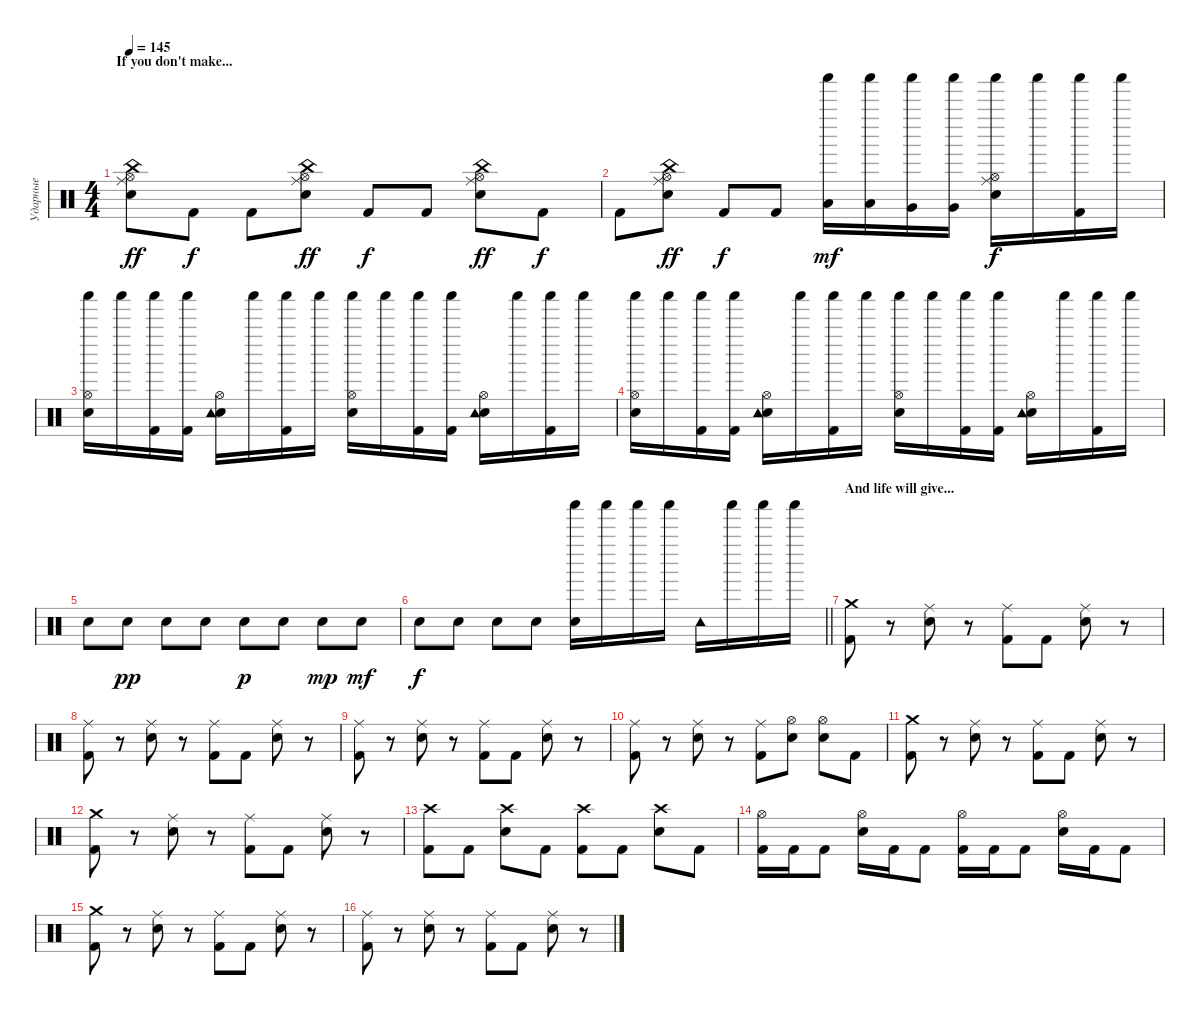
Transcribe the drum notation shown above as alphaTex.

\track ("Ударные" "Ударные") {instrument percussion bank 127}
\staff
\articulation defaults
\ts (4 4)
\section ("" "If you don't make...")
\tempo 145
\clef neutral
\ks c
("Hi-Hat (open)" "Ride (middle)" "China (hit)" "Snare (hit) 2").8{dy ff} "Kick (hit) 2".8{dy f} "Kick (hit) 2".8 ("Hi-Hat (open)" "Ride (middle)" "China (hit)" "Snare (hit) 2").8{dy ff} "Kick (hit) 2".8{dy f} "Kick (hit) 2".8 ("Hi-Hat (open)" "Ride (middle)" "China (hit)" "Snare (hit) 2").8{dy ff} "Kick (hit) 2".8{dy f} |
"Kick (hit) 2".8 ("Ride (middle)" "Hi-Hat (open)" "China (hit)" "Snare (hit) 2").8{dy ff} "Kick (hit) 2".8{dy f} "Kick (hit) 2".8 ("Low Tom (hit)" "Shaker (hit)").16{dy mf} ("Low Tom (hit)" "Shaker (hit)").16 ("Very Low Tom (hit)" "Shaker (hit)").16 ("Very Low Tom (hit)" "Shaker (hit)").16 ("Hi-Hat (open)" "Snare (hit) 2" "Ride (middle)" "Shaker (hit)").16{dy f} "Shaker (hit)".16 ("Kick (hit) 2" "Shaker (hit)").16 "Shaker (hit)".16 |
("Hi-Hat (open)" "Snare (hit) 2" "Shaker (hit)").16 "Shaker (hit)".16 ("Kick (hit) 2" "Shaker (hit)").16 ("Kick (hit) 2" "Shaker (hit)").16 ("Hi-Hat (open)" "Snare (hit) 2" "Tambourine (hit)").16 "Shaker (hit)".16 ("Kick (hit) 2" "Shaker (hit)").16 "Shaker (hit)".16 ("Hi-Hat (open)" "Snare (hit) 2" "Shaker (hit)").16 "Shaker (hit)".16 ("Kick (hit) 2" "Shaker (hit)").16 ("Kick (hit) 2" "Shaker (hit)").16 ("Hi-Hat (open)" "Snare (hit) 2" "Tambourine (hit)").16 "Shaker (hit)".16 ("Kick (hit) 2" "Shaker (hit)").16 "Shaker (hit)".16 |
("Hi-Hat (open)" "Snare (hit) 2" "Shaker (hit)").16 "Shaker (hit)".16 ("Kick (hit) 2" "Shaker (hit)").16 ("Kick (hit) 2" "Shaker (hit)").16 ("Hi-Hat (open)" "Snare (hit) 2" "Tambourine (hit)").16 "Shaker (hit)".16 ("Kick (hit) 2" "Shaker (hit)").16 "Shaker (hit)".16 ("Hi-Hat (open)" "Snare (hit) 2" "Shaker (hit)").16 "Shaker (hit)".16 ("Kick (hit) 2" "Shaker (hit)").16 ("Kick (hit) 2" "Shaker (hit)").16 ("Hi-Hat (open)" "Snare (hit) 2" "Tambourine (hit)").16 "Shaker (hit)".16 ("Kick (hit) 2" "Shaker (hit)").16 "Shaker (hit)".16 |
"Snare (hit) 2".8 "Snare (hit) 2".8{dy pp} "Snare (hit) 2".8 "Snare (hit) 2".8 "Snare (hit) 2".8{dy p} "Snare (hit) 2".8 "Snare (hit) 2".8{dy mp} "Snare (hit) 2".8{dy mf} |
\barLineRight lightlight "Snare (hit) 2".8{dy f} "Snare (hit) 2".8 "Snare (hit) 2".8 "Snare (hit) 2".8
("Snare (hit) 2" "Shaker (hit)").16 "Shaker (hit)".16 "Shaker (hit)".16 "Shaker (hit)".16 "Tambourine (hit)".16 "Shaker (hit)".16 "Shaker (hit)".16 "Shaker (hit)".16 |
\section ("" "And life will give...")
("Crash medium (hit)" "Kick (hit) 2").8 r.8 ("Ride (middle)" "Snare (hit) 2").8 r.8 ("Ride (middle)" "Kick (hit) 2").8 "Kick (hit) 2".8 ("Ride (middle)" "Snare (hit) 2").8 r.8 |
("Ride (middle)" "Kick (hit) 2").8 r.8 ("Ride (middle)" "Snare (hit) 2").8 r.8 ("Ride (middle)" "Kick (hit) 2").8 "Kick (hit) 2".8 ("Ride (middle)" "Snare (hit) 2").8 r.8 |
("Ride (middle)" "Kick (hit) 2").8 r.8 ("Ride (middle)" "Snare (hit) 2").8 r.8 ("Ride (middle)" "Kick (hit) 2").8 "Kick (hit) 2".8 ("Ride (middle)" "Snare (hit) 2").8 r.8 |
("Ride (middle)" "Kick (hit) 2").8 r.8 ("Ride (middle)" "Snare (hit) 2").8 r.8 ("Ride (middle)" "Kick (hit) 2").8 ("Hi-Hat (open)" "Snare (hit) 2").8 ("Hi-Hat (open)" "Snare (hit) 2").8 "Kick (hit) 2".8 |
("Crash medium (hit)" "Kick (hit) 2").8 r.8 ("Ride (middle)" "Snare (hit) 2").8 r.8 ("Ride (middle)" "Kick (hit) 2").8 "Kick (hit) 2".8 ("Ride (middle)" "Snare (hit) 2").8 r.8 |
("Crash medium (hit)" "Kick (hit) 2").8 r.8 ("Ride (middle)" "Snare (hit) 2").8 r.8 ("Ride (middle)" "Kick (hit) 2").8 "Kick (hit) 2".8 ("Ride (middle)" "Snare (hit) 2").8 r.8 |
("Kick (hit) 2" "Crash high (hit)").8 "Kick (hit) 2".8 ("Snare (hit) 2" "Crash high (hit)").8 "Kick (hit) 2".8 ("Kick (hit) 2" "Crash high (hit)").8 "Kick (hit) 2".8 ("Snare (hit) 2" "Crash high (hit)").8 "Kick (hit) 2".8 |
("Kick (hit) 2" "Hi-Hat (open)").16 "Kick (hit) 2".16 "Kick (hit) 2".8 ("Snare (hit) 2" "Hi-Hat (open)").16 "Kick (hit) 2".16 "Kick (hit) 2".8 ("Kick (hit) 2" "Hi-Hat (open)").16 "Kick (hit) 2".16 "Kick (hit) 2".8 ("Snare (hit) 2" "Hi-Hat (open)").16 "Kick (hit) 2".16 "Kick (hit) 2".8 |
("Crash medium (hit)" "Kick (hit) 2").8 r.8 ("Ride (middle)" "Snare (hit) 2").8 r.8 ("Ride (middle)" "Kick (hit) 2").8 "Kick (hit) 2".8 ("Ride (middle)" "Snare (hit) 2").8 r.8 |
("Ride (middle)" "Kick (hit) 2").8 r.8 ("Ride (middle)" "Snare (hit) 2").8 r.8 ("Ride (middle)" "Kick (hit) 2").8 "Kick (hit) 2".8 ("Ride (middle)" "Snare (hit) 2").8 r.8
